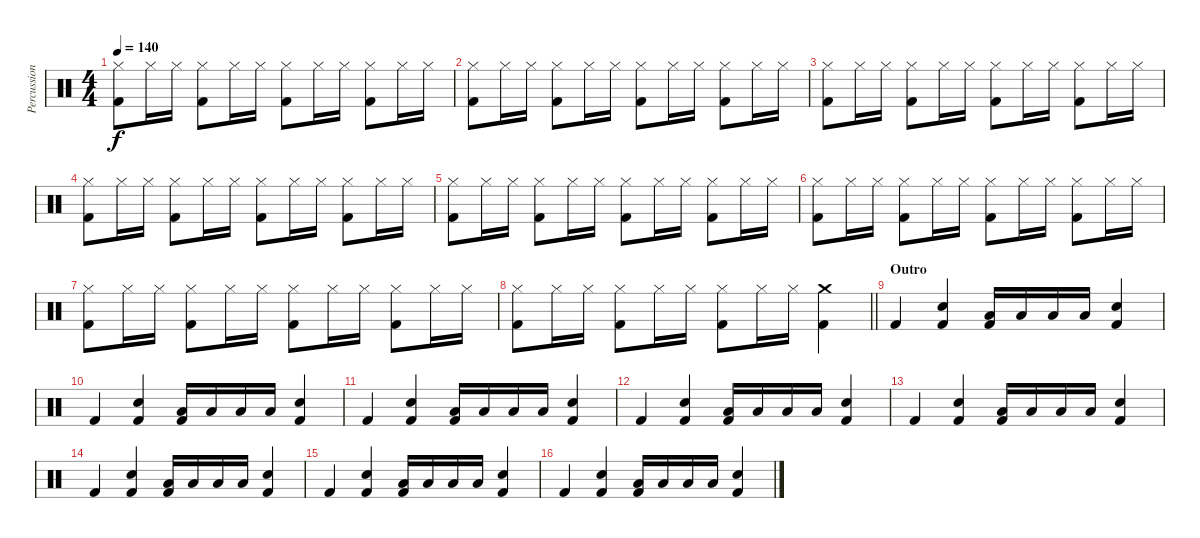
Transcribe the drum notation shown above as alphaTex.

\track ("Percussion" "Percussion") {instrument percussion}
\staff {score}
\articulation defaults
\ts (4 4)
\tempo 140
\clef neutral
\ks c
("Kick (hit) 2" "Hi-Hat (closed)").8{dy f} "Hi-Hat (closed)".16 "Hi-Hat (closed)".16 ("Kick (hit) 2" "Hi-Hat (closed)").8 "Hi-Hat (closed)".16 "Hi-Hat (closed)".16 ("Kick (hit) 2" "Hi-Hat (closed)").8 "Hi-Hat (closed)".16 "Hi-Hat (closed)".16 ("Kick (hit) 2" "Hi-Hat (closed)").8 "Hi-Hat (closed)".16 "Hi-Hat (closed)".16 |
("Kick (hit) 2" "Hi-Hat (closed)").8 "Hi-Hat (closed)".16 "Hi-Hat (closed)".16 ("Kick (hit) 2" "Hi-Hat (closed)").8 "Hi-Hat (closed)".16 "Hi-Hat (closed)".16 ("Kick (hit) 2" "Hi-Hat (closed)").8 "Hi-Hat (closed)".16 "Hi-Hat (closed)".16 ("Kick (hit) 2" "Hi-Hat (closed)").8 "Hi-Hat (closed)".16 "Hi-Hat (closed)".16 |
("Kick (hit) 2" "Hi-Hat (closed)").8 "Hi-Hat (closed)".16 "Hi-Hat (closed)".16 ("Kick (hit) 2" "Hi-Hat (closed)").8 "Hi-Hat (closed)".16 "Hi-Hat (closed)".16 ("Kick (hit) 2" "Hi-Hat (closed)").8 "Hi-Hat (closed)".16 "Hi-Hat (closed)".16 ("Kick (hit) 2" "Hi-Hat (closed)").8 "Hi-Hat (closed)".16 "Hi-Hat (closed)".16 |
("Kick (hit) 2" "Hi-Hat (closed)").8 "Hi-Hat (closed)".16 "Hi-Hat (closed)".16 ("Kick (hit) 2" "Hi-Hat (closed)").8 "Hi-Hat (closed)".16 "Hi-Hat (closed)".16 ("Kick (hit) 2" "Hi-Hat (closed)").8 "Hi-Hat (closed)".16 "Hi-Hat (closed)".16 ("Kick (hit) 2" "Hi-Hat (closed)").8 "Hi-Hat (closed)".16 "Hi-Hat (closed)".16 |
("Kick (hit) 2" "Hi-Hat (closed)").8 "Hi-Hat (closed)".16 "Hi-Hat (closed)".16 ("Kick (hit) 2" "Hi-Hat (closed)").8 "Hi-Hat (closed)".16 "Hi-Hat (closed)".16 ("Kick (hit) 2" "Hi-Hat (closed)").8 "Hi-Hat (closed)".16 "Hi-Hat (closed)".16 ("Kick (hit) 2" "Hi-Hat (closed)").8 "Hi-Hat (closed)".16 "Hi-Hat (closed)".16 |
("Kick (hit) 2" "Hi-Hat (closed)").8 "Hi-Hat (closed)".16 "Hi-Hat (closed)".16 ("Kick (hit) 2" "Hi-Hat (closed)").8 "Hi-Hat (closed)".16 "Hi-Hat (closed)".16 ("Kick (hit) 2" "Hi-Hat (closed)").8 "Hi-Hat (closed)".16 "Hi-Hat (closed)".16 ("Kick (hit) 2" "Hi-Hat (closed)").8 "Hi-Hat (closed)".16 "Hi-Hat (closed)".16 |
("Kick (hit) 2" "Hi-Hat (closed)").8 "Hi-Hat (closed)".16 "Hi-Hat (closed)".16 ("Kick (hit) 2" "Hi-Hat (closed)").8 "Hi-Hat (closed)".16 "Hi-Hat (closed)".16 ("Kick (hit) 2" "Hi-Hat (closed)").8 "Hi-Hat (closed)".16 "Hi-Hat (closed)".16 ("Kick (hit) 2" "Hi-Hat (closed)").8 "Hi-Hat (closed)".16 "Hi-Hat (closed)".16 |
\barLineRight lightlight
("Kick (hit) 2" "Hi-Hat (closed)").8 "Hi-Hat (closed)".16 "Hi-Hat (closed)".16 ("Kick (hit) 2" "Hi-Hat (closed)").8 "Hi-Hat (closed)".16 "Hi-Hat (closed)".16 ("Kick (hit) 2" "Hi-Hat (closed)").8 "Hi-Hat (closed)".16 "Hi-Hat (closed)".16 ("Kick (hit) 2" "Crash medium (hit)").4 |
\section ("" "Outro")
"Kick (hit) 2".4 ("Snare (hit) 2" "Kick (hit) 2").4 ("Low Tom (hit)" "Kick (hit) 2").16 "Low Tom (hit)".16 "Low Tom (hit)".16 "Low Tom (hit)".16 ("Snare (hit) 2" "Kick (hit) 2").4 |
"Kick (hit) 2".4 ("Snare (hit) 2" "Kick (hit) 2").4 ("Low Tom (hit)" "Kick (hit) 2").16 "Low Tom (hit)".16 "Low Tom (hit)".16 "Low Tom (hit)".16 ("Snare (hit) 2" "Kick (hit) 2").4 |
"Kick (hit) 2".4 ("Snare (hit) 2" "Kick (hit) 2").4 ("Low Tom (hit)" "Kick (hit) 2").16 "Low Tom (hit)".16 "Low Tom (hit)".16 "Low Tom (hit)".16 ("Snare (hit) 2" "Kick (hit) 2").4 |
"Kick (hit) 2".4 ("Snare (hit) 2" "Kick (hit) 2").4 ("Low Tom (hit)" "Kick (hit) 2").16 "Low Tom (hit)".16 "Low Tom (hit)".16 "Low Tom (hit)".16 ("Snare (hit) 2" "Kick (hit) 2").4 |
"Kick (hit) 2".4 ("Snare (hit) 2" "Kick (hit) 2").4 ("Low Tom (hit)" "Kick (hit) 2").16 "Low Tom (hit)".16 "Low Tom (hit)".16 "Low Tom (hit)".16 ("Snare (hit) 2" "Kick (hit) 2").4 |
"Kick (hit) 2".4 ("Snare (hit) 2" "Kick (hit) 2").4 ("Low Tom (hit)" "Kick (hit) 2").16 "Low Tom (hit)".16 "Low Tom (hit)".16 "Low Tom (hit)".16 ("Snare (hit) 2" "Kick (hit) 2").4 |
"Kick (hit) 2".4 ("Snare (hit) 2" "Kick (hit) 2").4 ("Low Tom (hit)" "Kick (hit) 2").16 "Low Tom (hit)".16 "Low Tom (hit)".16 "Low Tom (hit)".16 ("Snare (hit) 2" "Kick (hit) 2").4 |
"Kick (hit) 2".4 ("Snare (hit) 2" "Kick (hit) 2").4 ("Low Tom (hit)" "Kick (hit) 2").16 "Low Tom (hit)".16 "Low Tom (hit)".16 "Low Tom (hit)".16 ("Snare (hit) 2" "Kick (hit) 2").4
